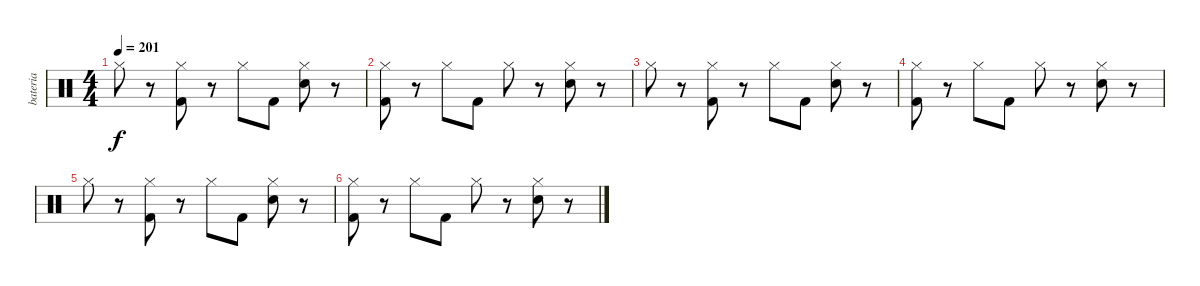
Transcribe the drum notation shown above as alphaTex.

\track ("bateria" "bateria") {solo instrument percussion}
\staff {score}
\articulation defaults
\ts (4 4)
\tempo 201
\clef neutral
\ks c "Hi-Hat (closed)".8{dy f volume 0}
r.8 ("Hi-Hat (closed)" "Kick (hit) 2").8 r.8 "Hi-Hat (closed)".8 "Kick (hit) 2".8 ("Hi-Hat (closed)" "Electric Snare (hit)").8 r.8 |
("Hi-Hat (closed)" "Kick (hit) 2").8 r.8 "Hi-Hat (closed)".8 "Kick (hit) 2".8 "Hi-Hat (closed)".8 r.8 ("Hi-Hat (closed)" "Electric Snare (hit)").8 r.8 |
"Hi-Hat (closed)".8 r.8 ("Hi-Hat (closed)" "Kick (hit) 2").8 r.8 "Hi-Hat (closed)".8 "Kick (hit) 2".8 ("Hi-Hat (closed)" "Electric Snare (hit)").8 r.8 |
("Hi-Hat (closed)" "Kick (hit) 2").8 r.8 "Hi-Hat (closed)".8 "Kick (hit) 2".8 "Hi-Hat (closed)".8 r.8 ("Hi-Hat (closed)" "Electric Snare (hit)").8 r.8 |
"Hi-Hat (closed)".8 r.8 ("Hi-Hat (closed)" "Kick (hit) 2").8 r.8 "Hi-Hat (closed)".8 "Kick (hit) 2".8 ("Hi-Hat (closed)" "Electric Snare (hit)").8 r.8 |
("Hi-Hat (closed)" "Kick (hit) 2").8 r.8 "Hi-Hat (closed)".8 "Kick (hit) 2".8 "Hi-Hat (closed)".8 r.8 ("Hi-Hat (closed)" "Electric Snare (hit)").8 r.8
